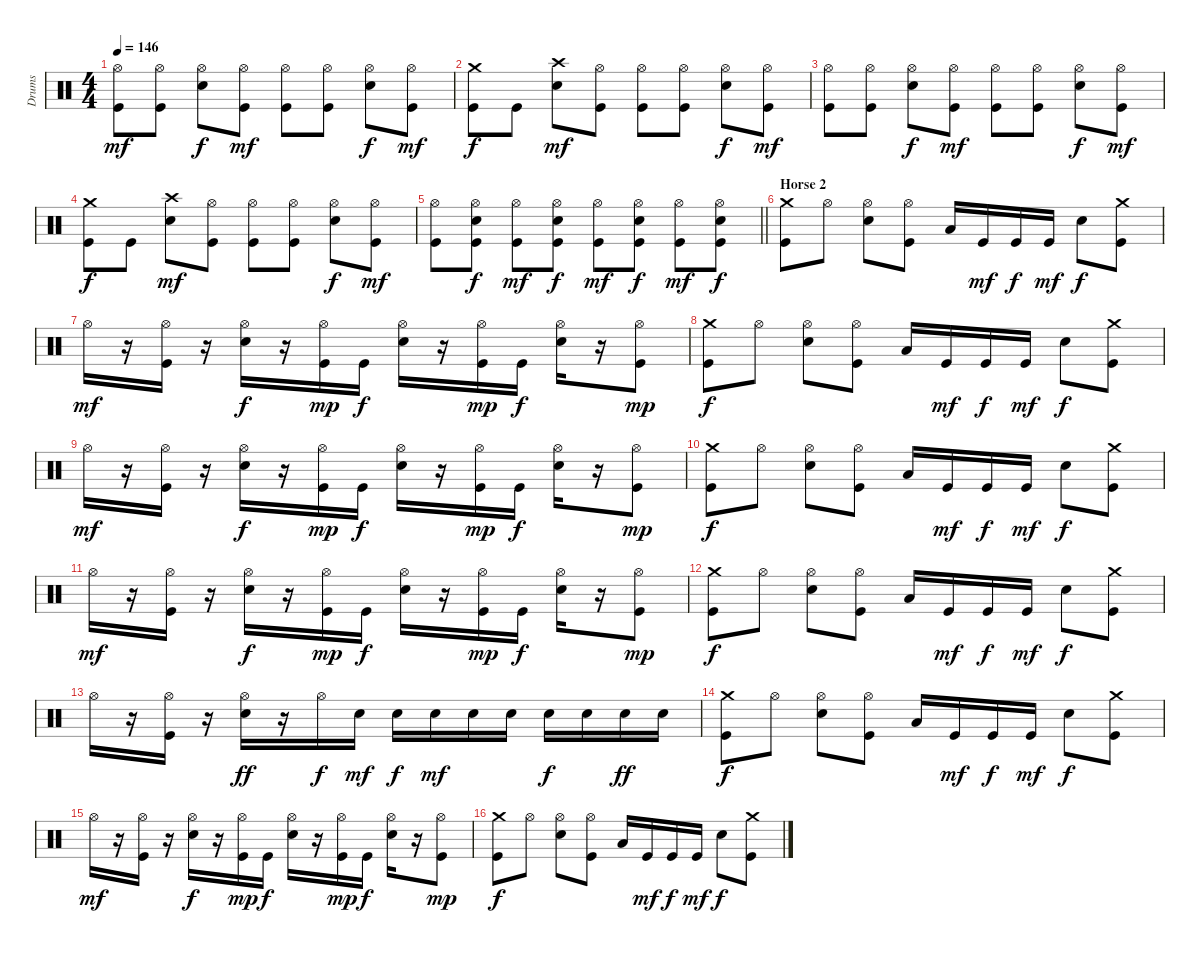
\track ("Drums" "Drums") {instrument percussion}
\staff {score}
\articulation defaults
\ts (4 4)
\tempo 146
\clef neutral
\ks c
("Hi-Hat (open)" "Kick (hit)").8{dy mf} ("Hi-Hat (open)" "Kick (hit)").8 ("Hi-Hat (open)" "Snare (hit) 2").8{dy f} ("Hi-Hat (open)" "Kick (hit)").8{dy mf} ("Hi-Hat (open)" "Kick (hit)").8 ("Hi-Hat (open)" "Kick (hit)").8 ("Hi-Hat (open)" "Snare (hit) 2").8{dy f} ("Hi-Hat (open)" "Kick (hit)").8{dy mf} |
("Crash medium (hit)" "Kick (hit)").8{dy f} "Kick (hit)".8 ("Crash high (hit)" "Snare (hit) 2").8{dy mf} ("Hi-Hat (open)" "Kick (hit)").8 ("Hi-Hat (open)" "Kick (hit)").8 ("Hi-Hat (open)" "Kick (hit)").8 ("Hi-Hat (open)" "Snare (hit) 2").8{dy f} ("Hi-Hat (open)" "Kick (hit)").8{dy mf} |
("Hi-Hat (open)" "Kick (hit)").8 ("Hi-Hat (open)" "Kick (hit)").8 ("Hi-Hat (open)" "Snare (hit) 2").8{dy f} ("Hi-Hat (open)" "Kick (hit)").8{dy mf} ("Hi-Hat (open)" "Kick (hit)").8 ("Hi-Hat (open)" "Kick (hit)").8 ("Hi-Hat (open)" "Snare (hit) 2").8{dy f} ("Hi-Hat (open)" "Kick (hit)").8{dy mf} |
("Crash medium (hit)" "Kick (hit)").8{dy f} "Kick (hit)".8 ("Crash high (hit)" "Snare (hit) 2").8{dy mf} ("Hi-Hat (open)" "Kick (hit)").8 ("Hi-Hat (open)" "Kick (hit)").8 ("Hi-Hat (open)" "Kick (hit)").8 ("Hi-Hat (open)" "Snare (hit) 2").8{dy f} ("Hi-Hat (open)" "Kick (hit)").8{dy mf} |
\barLineRight lightlight
("Hi-Hat (open)" "Kick (hit)").8 ("Hi-Hat (open)" "Snare (hit) 2" "Kick (hit)").8{dy f} ("Hi-Hat (open)" "Kick (hit)").8{dy mf} ("Hi-Hat (open)" "Snare (hit) 2" "Kick (hit)").8{dy f} ("Hi-Hat (open)" "Kick (hit)").8{dy mf} ("Hi-Hat (open)" "Snare (hit) 2" "Kick (hit)").8{dy f} ("Hi-Hat (open)" "Kick (hit)").8{dy mf} ("Hi-Hat (open)" "Snare (hit) 2" "Kick (hit)").8{dy f} |
\section ("" "Horse 2")
("Crash medium (hit)" "Kick (hit)").8 "Hi-Hat (open)".8 ("Hi-Hat (open)" "Snare (hit) 2").8 ("Hi-Hat (open)" "Kick (hit)").8 "Low Floor Tom (hit)".16 "Kick (hit)".16{dy mf} "Kick (hit)".16{dy f} "Kick (hit)".16{dy mf} "Snare (hit) 2".8{dy f} ("Crash medium (hit)" "Kick (hit)").8 |
"Hi-Hat (open)".16{dy mf} r.16 ("Hi-Hat (open)" "Kick (hit)").16 r.16 ("Hi-Hat (open)" "Snare (hit) 2").16{dy f} r.16 ("Hi-Hat (open)" "Kick (hit)").16{dy mp} "Kick (hit)".16{dy f} ("Hi-Hat (open)" "Snare (hit) 2").16 r.16 ("Hi-Hat (open)" "Kick (hit)").16{dy mp} "Kick (hit)".16{dy f} ("Hi-Hat (open)" "Snare (hit) 2").16 r.16 ("Hi-Hat (open)" "Kick (hit)").8{dy mp} |
("Crash medium (hit)" "Kick (hit)").8{dy f} "Hi-Hat (open)".8 ("Hi-Hat (open)" "Snare (hit) 2").8 ("Hi-Hat (open)" "Kick (hit)").8 "Low Floor Tom (hit)".16 "Kick (hit)".16{dy mf} "Kick (hit)".16{dy f} "Kick (hit)".16{dy mf} "Snare (hit) 2".8{dy f} ("Crash medium (hit)" "Kick (hit)").8 |
"Hi-Hat (open)".16{dy mf} r.16 ("Hi-Hat (open)" "Kick (hit)").16 r.16 ("Hi-Hat (open)" "Snare (hit) 2").16{dy f} r.16 ("Hi-Hat (open)" "Kick (hit)").16{dy mp} "Kick (hit)".16{dy f} ("Hi-Hat (open)" "Snare (hit) 2").16 r.16 ("Hi-Hat (open)" "Kick (hit)").16{dy mp} "Kick (hit)".16{dy f} ("Hi-Hat (open)" "Snare (hit) 2").16 r.16 ("Hi-Hat (open)" "Kick (hit)").8{dy mp} |
("Crash medium (hit)" "Kick (hit)").8{dy f} "Hi-Hat (open)".8 ("Hi-Hat (open)" "Snare (hit) 2").8 ("Hi-Hat (open)" "Kick (hit)").8 "Low Floor Tom (hit)".16 "Kick (hit)".16{dy mf} "Kick (hit)".16{dy f} "Kick (hit)".16{dy mf} "Snare (hit) 2".8{dy f} ("Crash medium (hit)" "Kick (hit)").8 |
"Hi-Hat (open)".16{dy mf} r.16 ("Hi-Hat (open)" "Kick (hit)").16 r.16 ("Hi-Hat (open)" "Snare (hit) 2").16{dy f} r.16 ("Hi-Hat (open)" "Kick (hit)").16{dy mp} "Kick (hit)".16{dy f} ("Hi-Hat (open)" "Snare (hit) 2").16 r.16 ("Hi-Hat (open)" "Kick (hit)").16{dy mp} "Kick (hit)".16{dy f} ("Hi-Hat (open)" "Snare (hit) 2").16 r.16 ("Hi-Hat (open)" "Kick (hit)").8{dy mp} |
("Crash medium (hit)" "Kick (hit)").8{dy f} "Hi-Hat (open)".8 ("Hi-Hat (open)" "Snare (hit) 2").8 ("Hi-Hat (open)" "Kick (hit)").8 "Low Floor Tom (hit)".16 "Kick (hit)".16{dy mf} "Kick (hit)".16{dy f} "Kick (hit)".16{dy mf} "Snare (hit) 2".8{dy f} ("Crash medium (hit)" "Kick (hit)").8 |
"Hi-Hat (open)".16 r.16 ("Hi-Hat (open)" "Kick (hit)").16 r.16 ("Hi-Hat (open)" "Snare (hit) 2").16{dy ff} r.16 "Hi-Hat (open)".16{dy f} "Snare (hit) 2".16{dy mf} "Snare (hit) 2".16{dy f} "Snare (hit) 2".16{dy mf} "Snare (hit) 2".16 "Snare (hit) 2".16 "Snare (hit) 2".16{dy f} "Snare (hit) 2".16 "Snare (hit) 2".16{dy ff} "Snare (hit) 2".16 |
("Crash medium (hit)" "Kick (hit)").8{dy f} "Hi-Hat (open)".8 ("Hi-Hat (open)" "Snare (hit) 2").8 ("Hi-Hat (open)" "Kick (hit)").8 "Low Floor Tom (hit)".16 "Kick (hit)".16{dy mf} "Kick (hit)".16{dy f} "Kick (hit)".16{dy mf} "Snare (hit) 2".8{dy f} ("Crash medium (hit)" "Kick (hit)").8 |
"Hi-Hat (open)".16{dy mf} r.16 ("Hi-Hat (open)" "Kick (hit)").16 r.16 ("Hi-Hat (open)" "Snare (hit) 2").16{dy f} r.16 ("Hi-Hat (open)" "Kick (hit)").16{dy mp} "Kick (hit)".16{dy f} ("Hi-Hat (open)" "Snare (hit) 2").16 r.16 ("Hi-Hat (open)" "Kick (hit)").16{dy mp} "Kick (hit)".16{dy f} ("Hi-Hat (open)" "Snare (hit) 2").16 r.16 ("Hi-Hat (open)" "Kick (hit)").8{dy mp} |
("Crash medium (hit)" "Kick (hit)").8{dy f} "Hi-Hat (open)".8 ("Hi-Hat (open)" "Snare (hit) 2").8 ("Hi-Hat (open)" "Kick (hit)").8 "Low Floor Tom (hit)".16 "Kick (hit)".16{dy mf} "Kick (hit)".16{dy f} "Kick (hit)".16{dy mf} "Snare (hit) 2".8{dy f} ("Crash medium (hit)" "Kick (hit)").8
